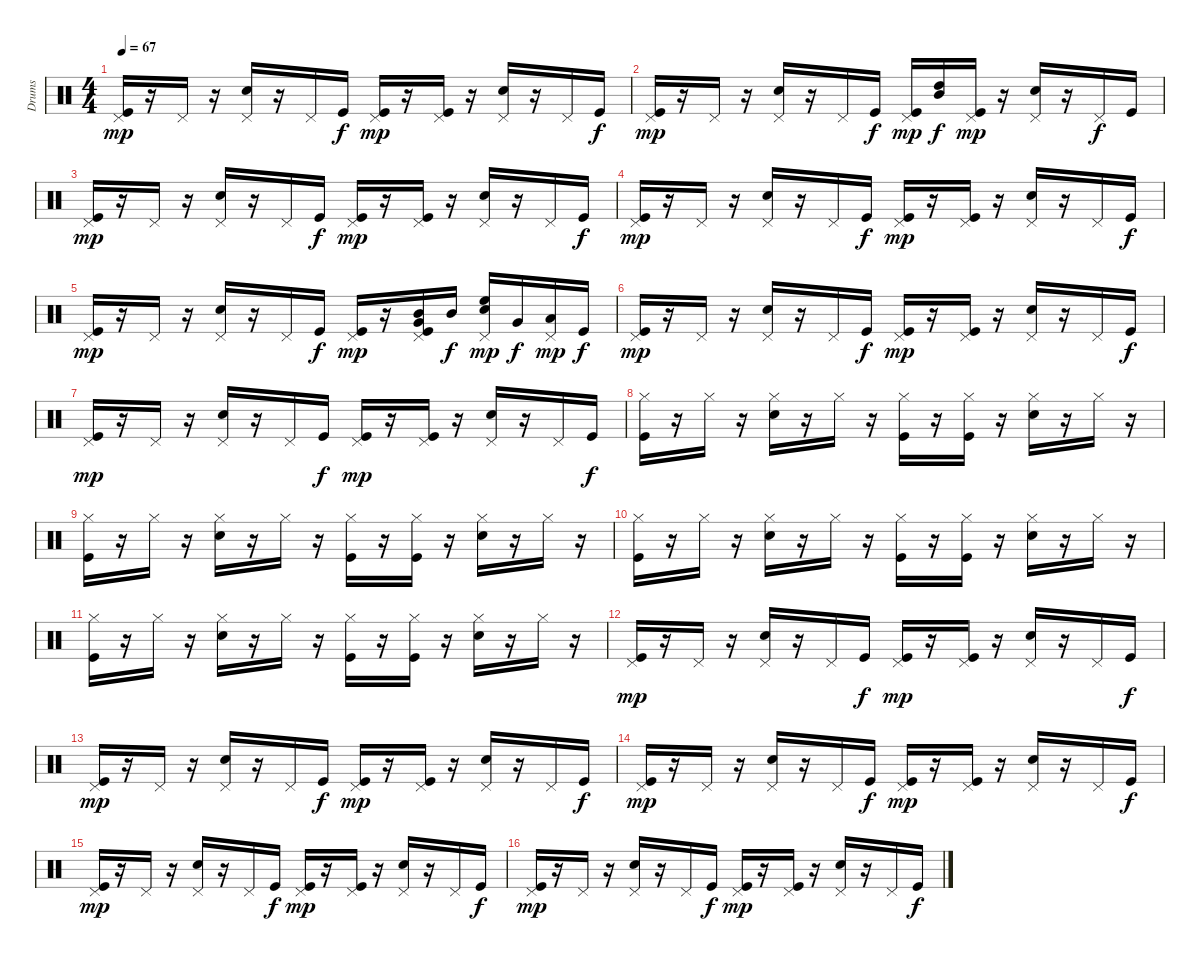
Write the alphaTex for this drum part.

\track ("Drums" "Drums") {instrument percussion}
\staff {score}
\articulation defaults
\ts (4 4)
\tempo 67
\clef neutral
\ks c
("Kick (hit)" "Pedal Hi-Hat (hit)").16{dy mp} r.16 "Pedal Hi-Hat (hit)".16 r.16 ("Pedal Hi-Hat (hit)" "Snare (hit) 2").16 r.16 "Pedal Hi-Hat (hit)".16 "Kick (hit)".16{dy f} ("Kick (hit)" "Pedal Hi-Hat (hit)").16{dy mp} r.16 ("Kick (hit)" "Pedal Hi-Hat (hit)").16 r.16 ("Pedal Hi-Hat (hit)" "Snare (hit) 2").16 r.16 "Pedal Hi-Hat (hit)".16 "Kick (hit)".16{dy f} |
("Kick (hit)" "Pedal Hi-Hat (hit)").16{dy mp} r.16 "Pedal Hi-Hat (hit)".16 r.16 ("Pedal Hi-Hat (hit)" "Snare (hit) 2").16 r.16 "Pedal Hi-Hat (hit)".16 "Kick (hit)".16{dy f} ("Kick (hit)" "Pedal Hi-Hat (hit)").16{dy mp} ("Mid Tom (hit)" "High Tom (hit)").16{dy f} ("Kick (hit)" "Pedal Hi-Hat (hit)").16{dy mp} r.16 ("Pedal Hi-Hat (hit)" "Snare (hit) 2").16 r.16 "Pedal Hi-Hat (hit)".16{dy f} "Kick (hit)".16 |
("Pedal Hi-Hat (hit)" "Kick (hit)").16{dy mp} r.16 "Pedal Hi-Hat (hit)".16 r.16 ("Pedal Hi-Hat (hit)" "Snare (hit) 2").16 r.16 "Pedal Hi-Hat (hit)".16 "Kick (hit)".16{dy f} ("Kick (hit)" "Pedal Hi-Hat (hit)").16{dy mp} r.16 ("Kick (hit)" "Pedal Hi-Hat (hit)").16 r.16 ("Pedal Hi-Hat (hit)" "Snare (hit) 2").16 r.16 "Pedal Hi-Hat (hit)".16 "Kick (hit)".16{dy f} |
("Kick (hit)" "Pedal Hi-Hat (hit)").16{dy mp} r.16 "Pedal Hi-Hat (hit)".16 r.16 ("Pedal Hi-Hat (hit)" "Snare (hit) 2").16 r.16 "Pedal Hi-Hat (hit)".16 "Kick (hit)".16{dy f} ("Kick (hit)" "Pedal Hi-Hat (hit)").16{dy mp} r.16 ("Kick (hit)" "Pedal Hi-Hat (hit)").16 r.16 ("Pedal Hi-Hat (hit)" "Snare (hit) 2").16 r.16 "Pedal Hi-Hat (hit)".16 "Kick (hit)".16{dy f} |
("Pedal Hi-Hat (hit)" "Kick (hit)").16{dy mp} r.16 "Pedal Hi-Hat (hit)".16 r.16 ("Pedal Hi-Hat (hit)" "Snare (hit) 2").16 r.16 "Pedal Hi-Hat (hit)".16 "Kick (hit)".16{dy f} ("Kick (hit)" "Pedal Hi-Hat (hit)").16{dy mp} r.16 ("Very Low Tom (hit)" "Kick (hit)" "Pedal Hi-Hat (hit)" "Mid Tom (hit)").16 "Mid Tom (hit)".16{dy f} ("Pedal Hi-Hat (hit)" "High Floor Tom (hit)" "Snare (hit) 2").16{dy mp} "Very Low Tom (hit)".16{dy f} ("Pedal Hi-Hat (hit)" "Low Floor Tom (hit)").16{dy mp} "Kick (hit)".16{dy f} |
("Kick (hit)" "Pedal Hi-Hat (hit)").16{dy mp} r.16 "Pedal Hi-Hat (hit)".16 r.16 ("Pedal Hi-Hat (hit)" "Snare (hit) 2").16 r.16 "Pedal Hi-Hat (hit)".16 "Kick (hit)".16{dy f} ("Kick (hit)" "Pedal Hi-Hat (hit)").16{dy mp} r.16 ("Kick (hit)" "Pedal Hi-Hat (hit)").16 r.16 ("Pedal Hi-Hat (hit)" "Snare (hit) 2").16 r.16 "Pedal Hi-Hat (hit)".16 "Kick (hit)".16{dy f} |
("Kick (hit)" "Pedal Hi-Hat (hit)").16{dy mp} r.16 "Pedal Hi-Hat (hit)".16 r.16 ("Pedal Hi-Hat (hit)" "Snare (hit) 2").16 r.16 "Pedal Hi-Hat (hit)".16 "Kick (hit)".16{dy f} ("Kick (hit)" "Pedal Hi-Hat (hit)").16{dy mp} r.16 ("Kick (hit)" "Pedal Hi-Hat (hit)").16 r.16 ("Pedal Hi-Hat (hit)" "Snare (hit) 2").16 r.16 "Pedal Hi-Hat (hit)".16 "Kick (hit)".16{dy f} |
("Kick (hit)" "Hi-Hat (closed)").16 r.16 "Hi-Hat (closed)".16 r.16 ("Hi-Hat (closed)" "Snare (hit) 2").16 r.16 "Hi-Hat (closed)".16 r.16 ("Kick (hit)" "Hi-Hat (closed)").16 r.16 ("Kick (hit)" "Hi-Hat (closed)").16 r.16 ("Hi-Hat (closed)" "Snare (hit) 2").16 r.16 "Hi-Hat (closed)".16 r.16 |
("Kick (hit)" "Hi-Hat (closed)").16 r.16 "Hi-Hat (closed)".16 r.16 ("Hi-Hat (closed)" "Snare (hit) 2").16 r.16 "Hi-Hat (closed)".16 r.16 ("Kick (hit)" "Hi-Hat (closed)").16 r.16 ("Kick (hit)" "Hi-Hat (closed)").16 r.16 ("Hi-Hat (closed)" "Snare (hit) 2").16 r.16 "Hi-Hat (closed)".16 r.16 |
("Kick (hit)" "Hi-Hat (closed)").16 r.16 "Hi-Hat (closed)".16 r.16 ("Hi-Hat (closed)" "Snare (hit) 2").16 r.16 "Hi-Hat (closed)".16 r.16 ("Kick (hit)" "Hi-Hat (closed)").16 r.16 ("Kick (hit)" "Hi-Hat (closed)").16 r.16 ("Hi-Hat (closed)" "Snare (hit) 2").16 r.16 "Hi-Hat (closed)".16 r.16 |
("Kick (hit)" "Hi-Hat (closed)").16 r.16 "Hi-Hat (closed)".16 r.16 ("Hi-Hat (closed)" "Snare (hit) 2").16 r.16 "Hi-Hat (closed)".16 r.16 ("Kick (hit)" "Hi-Hat (closed)").16 r.16 ("Kick (hit)" "Hi-Hat (closed)").16 r.16 ("Hi-Hat (closed)" "Snare (hit) 2").16 r.16 "Hi-Hat (closed)".16 r.16 |
("Pedal Hi-Hat (hit)" "Kick (hit)").16{dy mp} r.16 "Pedal Hi-Hat (hit)".16 r.16 ("Pedal Hi-Hat (hit)" "Snare (hit) 2").16 r.16 "Pedal Hi-Hat (hit)".16 "Kick (hit)".16{dy f} ("Kick (hit)" "Pedal Hi-Hat (hit)").16{dy mp} r.16 ("Kick (hit)" "Pedal Hi-Hat (hit)").16 r.16 ("Pedal Hi-Hat (hit)" "Snare (hit) 2").16 r.16 "Pedal Hi-Hat (hit)".16 "Kick (hit)".16{dy f} |
("Kick (hit)" "Pedal Hi-Hat (hit)").16{dy mp} r.16 "Pedal Hi-Hat (hit)".16 r.16 ("Pedal Hi-Hat (hit)" "Snare (hit) 2").16 r.16 "Pedal Hi-Hat (hit)".16 "Kick (hit)".16{dy f} ("Kick (hit)" "Pedal Hi-Hat (hit)").16{dy mp} r.16 ("Kick (hit)" "Pedal Hi-Hat (hit)").16 r.16 ("Pedal Hi-Hat (hit)" "Snare (hit) 2").16 r.16 "Pedal Hi-Hat (hit)".16 "Kick (hit)".16{dy f} |
("Kick (hit)" "Pedal Hi-Hat (hit)").16{dy mp} r.16 "Pedal Hi-Hat (hit)".16 r.16 ("Pedal Hi-Hat (hit)" "Snare (hit) 2").16 r.16 "Pedal Hi-Hat (hit)".16 "Kick (hit)".16{dy f} ("Kick (hit)" "Pedal Hi-Hat (hit)").16{dy mp} r.16 ("Kick (hit)" "Pedal Hi-Hat (hit)").16 r.16 ("Pedal Hi-Hat (hit)" "Snare (hit) 2").16 r.16 "Pedal Hi-Hat (hit)".16 "Kick (hit)".16{dy f} |
("Kick (hit)" "Pedal Hi-Hat (hit)").16{dy mp} r.16 "Pedal Hi-Hat (hit)".16 r.16 ("Pedal Hi-Hat (hit)" "Snare (hit) 2").16 r.16 "Pedal Hi-Hat (hit)".16 "Kick (hit)".16{dy f} ("Kick (hit)" "Pedal Hi-Hat (hit)").16{dy mp} r.16 ("Kick (hit)" "Pedal Hi-Hat (hit)").16 r.16 ("Pedal Hi-Hat (hit)" "Snare (hit) 2").16 r.16 "Pedal Hi-Hat (hit)".16 "Kick (hit)".16{dy f} |
("Kick (hit)" "Pedal Hi-Hat (hit)").16{dy mp} r.16 "Pedal Hi-Hat (hit)".16 r.16 ("Pedal Hi-Hat (hit)" "Snare (hit) 2").16 r.16 "Pedal Hi-Hat (hit)".16 "Kick (hit)".16{dy f} ("Kick (hit)" "Pedal Hi-Hat (hit)").16{dy mp} r.16 ("Kick (hit)" "Pedal Hi-Hat (hit)").16 r.16 ("Pedal Hi-Hat (hit)" "Snare (hit) 2").16 r.16 "Pedal Hi-Hat (hit)".16 "Kick (hit)".16{dy f}
